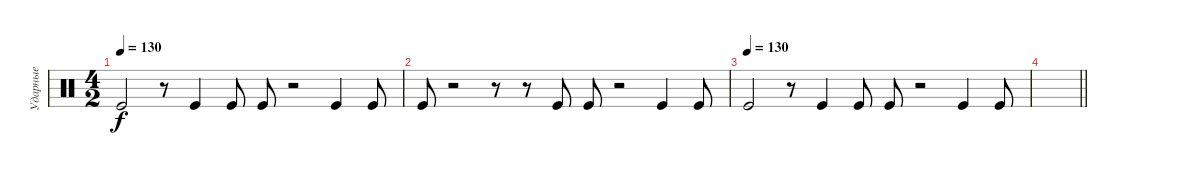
\track ("Ударные" "Ударные") {instrument percussion}
\staff {score}
\articulation defaults
\ts (4 2)
\tempo 130
\clef neutral
\ks c "Kick (hit)".2{dy f}
r.8 "Kick (hit)".4 "Kick (hit)".8 "Kick (hit)".8 r.2 "Kick (hit)".4 "Kick (hit)".8 |
"Kick (hit)".8 r.2 r.8 r.8 "Kick (hit)".8 "Kick (hit)".8 r.2 "Kick (hit)".4 "Kick (hit)".8 |
\tempo (130)
"Kick (hit)".2 r.8 "Kick (hit)".4 "Kick (hit)".8 "Kick (hit)".8 r.2 "Kick (hit)".4 "Kick (hit)".8 |
\barLineRight lightlight
